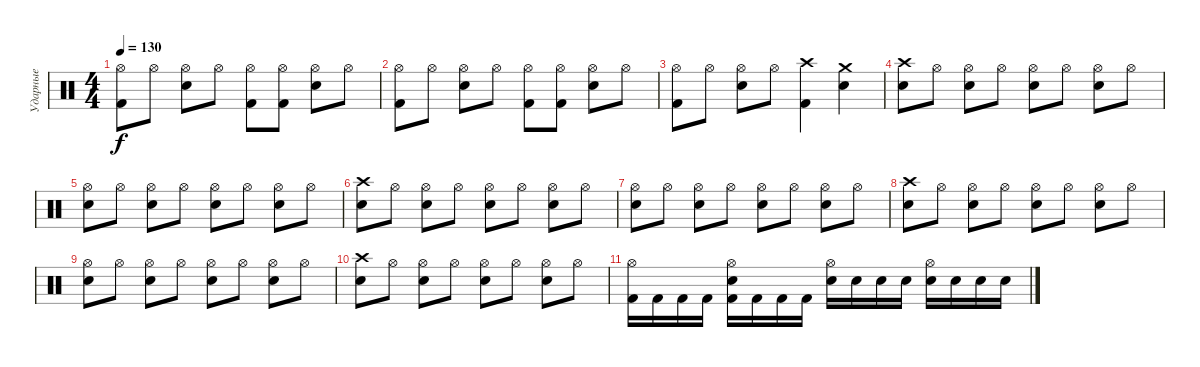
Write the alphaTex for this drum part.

\track ("Ударные" "Ударные") {instrument percussion}
\staff {score}
\articulation defaults
\ts (4 4)
\tempo 130
\clef neutral
\ks c
("Hi-Hat (open)" "Kick (hit) 2").8{dy f} "Hi-Hat (open)".8 ("Electric Snare (hit)" "Hi-Hat (open)").8 "Hi-Hat (open)".8 ("Hi-Hat (open)" "Kick (hit) 2").8 ("Hi-Hat (open)" "Kick (hit) 2").8 ("Hi-Hat (open)" "Electric Snare (hit)").8 "Hi-Hat (open)".8 |
("Hi-Hat (open)" "Kick (hit) 2").8 "Hi-Hat (open)".8 ("Electric Snare (hit)" "Hi-Hat (open)").8 "Hi-Hat (open)".8 ("Hi-Hat (open)" "Kick (hit) 2").8 ("Hi-Hat (open)" "Kick (hit) 2").8 ("Hi-Hat (open)" "Electric Snare (hit)").8 "Hi-Hat (open)".8 |
("Hi-Hat (open)" "Kick (hit) 2").8 "Hi-Hat (open)".8 ("Electric Snare (hit)" "Hi-Hat (open)").8 "Hi-Hat (open)".8 ("Crash high (hit)" "Kick (hit) 2").4 ("Crash medium (hit)" "Electric Snare (hit)").4 |
("Electric Snare (hit)" "Crash high (hit)").8 "Hi-Hat (open)".8 ("Electric Snare (hit)" "Hi-Hat (open)").8 "Hi-Hat (open)".8 ("Electric Snare (hit)" "Hi-Hat (open)").8 "Hi-Hat (open)".8 ("Electric Snare (hit)" "Hi-Hat (open)").8 "Hi-Hat (open)".8 |
("Electric Snare (hit)" "Hi-Hat (open)").8 "Hi-Hat (open)".8 ("Electric Snare (hit)" "Hi-Hat (open)").8 "Hi-Hat (open)".8 ("Electric Snare (hit)" "Hi-Hat (open)").8 "Hi-Hat (open)".8 ("Electric Snare (hit)" "Hi-Hat (open)").8 "Hi-Hat (open)".8 |
("Electric Snare (hit)" "Crash high (hit)").8 "Hi-Hat (open)".8 ("Electric Snare (hit)" "Hi-Hat (open)").8 "Hi-Hat (open)".8 ("Electric Snare (hit)" "Hi-Hat (open)").8 "Hi-Hat (open)".8 ("Electric Snare (hit)" "Hi-Hat (open)").8 "Hi-Hat (open)".8 |
("Electric Snare (hit)" "Hi-Hat (open)").8 "Hi-Hat (open)".8 ("Electric Snare (hit)" "Hi-Hat (open)").8 "Hi-Hat (open)".8 ("Electric Snare (hit)" "Hi-Hat (open)").8 "Hi-Hat (open)".8 ("Electric Snare (hit)" "Hi-Hat (open)").8 "Hi-Hat (open)".8 |
("Electric Snare (hit)" "Crash high (hit)").8 "Hi-Hat (open)".8 ("Electric Snare (hit)" "Hi-Hat (open)").8 "Hi-Hat (open)".8 ("Electric Snare (hit)" "Hi-Hat (open)").8 "Hi-Hat (open)".8 ("Electric Snare (hit)" "Hi-Hat (open)").8 "Hi-Hat (open)".8 |
("Electric Snare (hit)" "Hi-Hat (open)").8 "Hi-Hat (open)".8 ("Electric Snare (hit)" "Hi-Hat (open)").8 "Hi-Hat (open)".8 ("Electric Snare (hit)" "Hi-Hat (open)").8 "Hi-Hat (open)".8 ("Electric Snare (hit)" "Hi-Hat (open)").8 "Hi-Hat (open)".8 |
("Electric Snare (hit)" "Crash high (hit)").8 "Hi-Hat (open)".8 ("Electric Snare (hit)" "Hi-Hat (open)").8 "Hi-Hat (open)".8 ("Electric Snare (hit)" "Hi-Hat (open)").8 "Hi-Hat (open)".8 ("Electric Snare (hit)" "Hi-Hat (open)").8 "Hi-Hat (open)".8 |
("Kick (hit) 2" "Hi-Hat (open)").16 "Kick (hit) 2".16 "Kick (hit) 2".16 "Kick (hit) 2".16 ("Kick (hit) 2" "Hi-Hat (open)" "Electric Snare (hit)").16 "Kick (hit) 2".16 "Kick (hit) 2".16 "Kick (hit) 2".16 ("Electric Snare (hit)" "Hi-Hat (open)").16 "Electric Snare (hit)".16 "Electric Snare (hit)".16 "Electric Snare (hit)".16 ("Electric Snare (hit)" "Hi-Hat (open)").16 "Electric Snare (hit)".16 "Electric Snare (hit)".16 "Electric Snare (hit)".16
